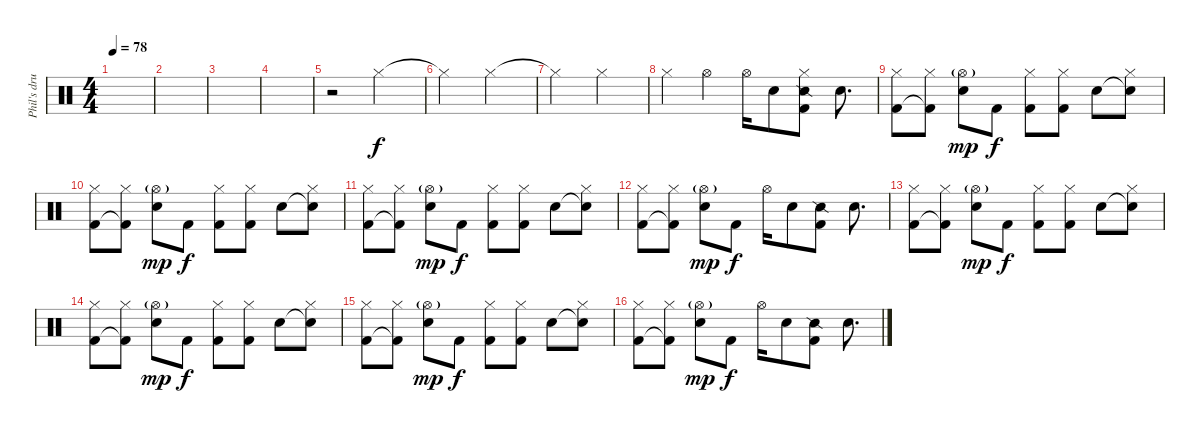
\track ("Phil's drums" "Phil's dru") {instrument percussion}
\staff {score}
\articulation defaults
\ts (4 4)
\tempo 78
\clef neutral
\ks c
|
|
|
|
r.2 "Hi-Hat (closed)".2 |
"Hi-Hat (closed)"{t}.2 "Hi-Hat (closed)".2 |
"Hi-Hat (closed)"{t}.2 "Hi-Hat (closed)".2 |
"Hi-Hat (closed)".4 "Hi-Hat (open)".4 "Hi-Hat (open)".16 "Snare (hit) 2".8 ("Snare (side stick) 2" "Hi-Hat (closed)" "Kick (hit) 2").8 "Snare (hit) 2".8{d} |
("Kick (hit) 2" "Hi-Hat (closed)").8 ("Kick (hit) 2"{t} "Hi-Hat (closed)").8 ("Snare (hit) 2" "Hi-Hat (open)"{g}).8{dy mp} "Kick (hit) 2".8{dy f} ("Kick (hit) 2" "Hi-Hat (closed)").8 ("Kick (hit) 2" "Hi-Hat (closed)").8 "Snare (hit) 2".8 ("Snare (hit) 2"{t} "Hi-Hat (closed)").8 |
("Kick (hit) 2" "Hi-Hat (closed)").8 ("Kick (hit) 2"{t} "Hi-Hat (closed)").8 ("Snare (hit) 2" "Hi-Hat (open)"{g}).8{dy mp} "Kick (hit) 2".8{dy f} ("Kick (hit) 2" "Hi-Hat (closed)").8 ("Kick (hit) 2" "Hi-Hat (closed)").8 "Snare (hit) 2".8 ("Snare (hit) 2"{t} "Hi-Hat (closed)").8 |
("Kick (hit) 2" "Hi-Hat (closed)").8 ("Kick (hit) 2"{t} "Hi-Hat (closed)").8 ("Snare (hit) 2" "Hi-Hat (open)"{g}).8{dy mp} "Kick (hit) 2".8{dy f} ("Kick (hit) 2" "Hi-Hat (closed)").8 ("Kick (hit) 2" "Hi-Hat (closed)").8 "Snare (hit) 2".8 ("Snare (hit) 2"{t} "Hi-Hat (closed)").8 |
("Kick (hit) 2" "Hi-Hat (closed)").8 ("Kick (hit) 2"{t} "Hi-Hat (closed)").8 ("Snare (hit) 2" "Hi-Hat (open)"{g}).8{dy mp} "Kick (hit) 2".8{dy f} "Hi-Hat (open)".16 "Snare (hit) 2".8 ("Snare (side stick) 2" "Kick (hit) 2").8 "Snare (hit) 2".8{d} |
("Kick (hit) 2" "Hi-Hat (closed)").8 ("Kick (hit) 2"{t} "Hi-Hat (closed)").8 ("Snare (hit) 2" "Hi-Hat (open)"{g}).8{dy mp} "Kick (hit) 2".8{dy f} ("Kick (hit) 2" "Hi-Hat (closed)").8 ("Kick (hit) 2" "Hi-Hat (closed)").8 "Snare (hit) 2".8 ("Snare (hit) 2"{t} "Hi-Hat (closed)").8 |
("Kick (hit) 2" "Hi-Hat (closed)").8 ("Kick (hit) 2"{t} "Hi-Hat (closed)").8 ("Snare (hit) 2" "Hi-Hat (open)"{g}).8{dy mp} "Kick (hit) 2".8{dy f} ("Kick (hit) 2" "Hi-Hat (closed)").8 ("Kick (hit) 2" "Hi-Hat (closed)").8 "Snare (hit) 2".8 ("Snare (hit) 2"{t} "Hi-Hat (closed)").8 |
("Kick (hit) 2" "Hi-Hat (closed)").8 ("Kick (hit) 2"{t} "Hi-Hat (closed)").8 ("Snare (hit) 2" "Hi-Hat (open)"{g}).8{dy mp} "Kick (hit) 2".8{dy f} ("Kick (hit) 2" "Hi-Hat (closed)").8 ("Kick (hit) 2" "Hi-Hat (closed)").8 "Snare (hit) 2".8 ("Snare (hit) 2"{t} "Hi-Hat (closed)").8 |
("Kick (hit) 2" "Hi-Hat (closed)").8 ("Kick (hit) 2"{t} "Hi-Hat (closed)").8 ("Snare (hit) 2" "Hi-Hat (open)"{g}).8{dy mp} "Kick (hit) 2".8{dy f} "Hi-Hat (open)".16 "Snare (hit) 2".8 ("Snare (side stick) 2" "Kick (hit) 2").8 "Snare (hit) 2".8{d}
